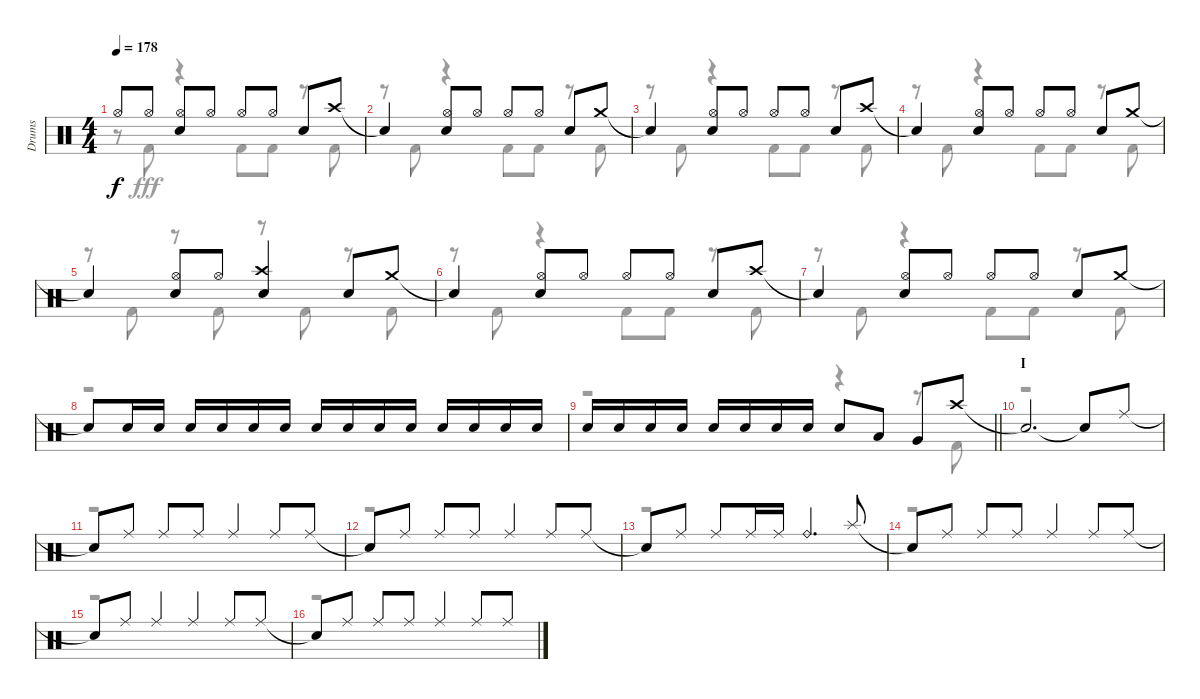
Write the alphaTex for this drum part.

\track ("Drums" "Drums") {instrument percussion}
\staff {score}
\articulation defaults
\voice
\ts (4 4)
\tempo 178
\clef neutral
\ks c "Hi-Hat (open)".8{dy f} "Hi-Hat (open)".8
("Hi-Hat (open)" "Snare (hit) 2").8 "Hi-Hat (open)".8 "Hi-Hat (open)".8 "Hi-Hat (open)".8 "Snare (hit) 2".8 "Crash high (hit)".8 |
"Snare (hit)"{t}.4 ("Hi-Hat (open)" "Snare (hit) 2").8 "Hi-Hat (open)".8 "Hi-Hat (open)".8 "Hi-Hat (open)".8 "Snare (hit) 2".8 "Crash medium (hit)".8 |
"Snare (hit)"{t}.4 ("Hi-Hat (open)" "Snare (hit) 2").8 "Hi-Hat (open)".8 "Hi-Hat (open)".8 "Hi-Hat (open)".8 "Snare (hit) 2".8 "Crash high (hit)".8 |
"Snare (hit)"{t}.4 ("Hi-Hat (open)" "Snare (hit) 2").8 "Hi-Hat (open)".8 "Hi-Hat (open)".8 "Hi-Hat (open)".8 "Snare (hit) 2".8 "Crash medium (hit)".8 |
"Snare (hit)"{t}.4 ("Hi-Hat (open)" "Snare (hit) 2").8 "Hi-Hat (open)".8 ("Crash high (hit)" "Snare (hit) 2").4 "Snare (hit) 2".8 "Crash medium (hit)".8 |
"Snare (hit)"{t}.4 ("Hi-Hat (open)" "Snare (hit) 2").8 "Hi-Hat (open)".8 "Hi-Hat (open)".8 "Hi-Hat (open)".8 "Snare (hit) 2".8 "Crash high (hit)".8 |
"Snare (hit)"{t}.4 ("Hi-Hat (open)" "Snare (hit) 2").8 "Hi-Hat (open)".8 "Hi-Hat (open)".8 "Hi-Hat (open)".8 "Snare (hit) 2".8 "Crash medium (hit)".8 |
"Snare (hit)"{t}.8 "Snare (hit) 2".16 "Snare (hit) 2".16 "Snare (hit) 2".16 "Snare (hit) 2".16 "Snare (hit) 2".16 "Snare (hit) 2".16 "Snare (hit) 2".16 "Snare (hit) 2".16 "Snare (hit) 2".16 "Snare (hit) 2".16 "Snare (hit) 2".16 "Snare (hit) 2".16 "Snare (hit) 2".16 "Snare (hit) 2".16 |
\barLineRight lightlight "Snare (hit) 2".16 "Snare (hit) 2".16 "Snare (hit) 2".16 "Snare (hit) 2".16 "Snare (hit) 2".16 "Snare (hit) 2".16 "Snare (hit) 2".16 "Snare (hit) 2".16 "Snare (hit) 2".8 "Low Tom (hit)".8 "Very Low Tom (hit)".8 "Crash high (hit)".8
|
\section ("" "I")
"Snare (hit)"{t}.2{d} "Snare (hit)"{t}.8 "Ride (middle)".8 |
"Snare (hit)"{t}.8 "Ride (middle)".8 "Ride (middle)".8 "Ride (middle)".8 "Ride (middle)".4 "Ride (middle)".8 "Ride (middle)".8 |
"Snare (hit)"{t}.8 "Ride (middle)".8 "Ride (middle)".8 "Ride (middle)".8 "Ride (middle)".4 "Ride (middle)".8 "Ride (middle)".8 |
"Snare (hit)"{t}.8 "Ride (middle)".8 "Ride (middle)".8 "Ride (middle)".16 "Ride (middle)".16 "Ride (bell)".4{d} "Splash (hit)".8 |
"Snare (hit)"{t}.8 "Ride (middle)".8 "Ride (middle)".8 "Ride (middle)".8 "Ride (middle)".4 "Ride (middle)".8 "Ride (middle)".8 |
"Snare (hit)"{t}.8 "Ride (middle)".8 "Ride (middle)".4 "Ride (middle)".4 "Ride (middle)".8 "Ride (middle)".8 |
"Snare (hit)"{t}.8 "Ride (middle)".8 "Ride (middle)".8 "Ride (middle)".8 "Ride (middle)".4 "Ride (middle)".8 "Ride (middle)".8
\voice
\clef neutral
\ottava regular
\simile none
\ks c
r.8{dy fff} "Kick (hit) 2".8 r.4 "Kick (hit) 2".8 "Kick (hit) 2".8 r.8 "Kick (hit) 2".8 |
r.8 "Kick (hit) 2".8 r.4 "Kick (hit) 2".8 "Kick (hit) 2".8 r.8 "Kick (hit) 2".8 |
r.8 "Kick (hit) 2".8 r.4 "Kick (hit) 2".8 "Kick (hit) 2".8 r.8 "Kick (hit) 2".8 |
r.8 "Kick (hit) 2".8 r.4 "Kick (hit) 2".8 "Kick (hit) 2".8 r.8 "Kick (hit) 2".8 |
r.8 "Kick (hit) 2".8 r.8 "Kick (hit) 2".8 r.8 "Kick (hit) 2".8 r.8 "Kick (hit) 2".8 |
r.8 "Kick (hit) 2".8 r.4 "Kick (hit) 2".8 "Kick (hit) 2".8 r.8 "Kick (hit) 2".8 |
r.8 "Kick (hit) 2".8 r.4 "Kick (hit) 2".8 "Kick (hit) 2".8 r.8 "Kick (hit) 2".8 |
r.1 |
\barLineRight lightlight
r.2 r.4 r.8 "Kick (hit) 2".8 |
r.1 |
r.1 |
r.1 |
r.1 |
r.1 |
r.1 |
r.1
